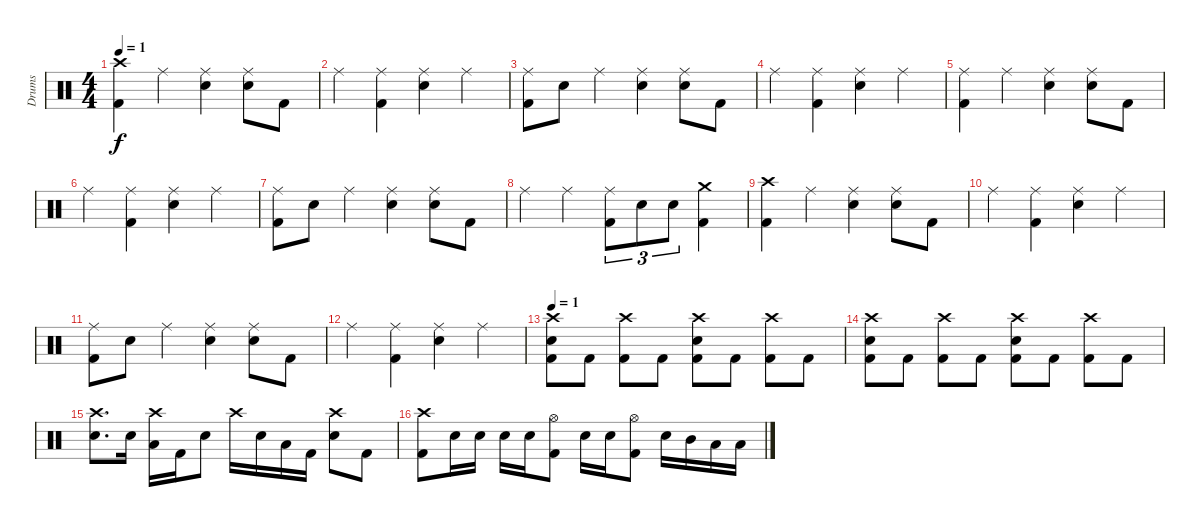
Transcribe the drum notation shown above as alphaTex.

\track ("Drums" "Drums") {instrument percussion}
\staff {score}
\articulation defaults
\ts (4 4)
\tempo 1
\clef neutral
\ks c
("Crash high (hit)" "Kick (hit) 2").4{dy f} "Ride (middle)".4 ("Ride (middle)" "Snare (hit) 2").4 ("Ride (middle)" "Snare (hit) 2").8 "Kick (hit) 2".8 |
"Ride (middle)".4 ("Ride (middle)" "Kick (hit) 2").4 ("Ride (middle)" "Snare (hit) 2").4 "Ride (middle)".4 |
("Ride (middle)" "Kick (hit) 2").8 "Snare (hit) 2".8 "Ride (middle)".4 ("Ride (middle)" "Snare (hit) 2").4 ("Ride (middle)" "Snare (hit) 2").8 "Kick (hit) 2".8 |
"Ride (middle)".4 ("Ride (middle)" "Kick (hit) 2").4 ("Ride (middle)" "Snare (hit) 2").4 "Ride (middle)".4 |
("Ride (middle)" "Kick (hit) 2").4 "Ride (middle)".4 ("Ride (middle)" "Snare (hit) 2").4 ("Ride (middle)" "Snare (hit) 2").8 "Kick (hit) 2".8 |
"Ride (middle)".4 ("Ride (middle)" "Kick (hit) 2").4 ("Ride (middle)" "Snare (hit) 2").4 "Ride (middle)".4 |
("Ride (middle)" "Kick (hit) 2").8 "Snare (hit) 2".8 "Ride (middle)".4 ("Ride (middle)" "Snare (hit) 2").4 ("Ride (middle)" "Snare (hit) 2").8 "Kick (hit) 2".8 |
"Ride (middle)".4 "Ride (middle)".4 ("Ride (middle)" "Kick (hit) 2").8{tu (3 2)} "Snare (hit) 2".8{tu (3 2)} "Snare (hit) 2".8{tu (3 2)} ("Crash medium (hit)" "Kick (hit) 2").4 |
("Crash high (hit)" "Kick (hit) 2").4 "Ride (middle)".4 ("Ride (middle)" "Snare (hit) 2").4 ("Ride (middle)" "Snare (hit) 2").8 "Kick (hit) 2".8 |
"Ride (middle)".4 ("Ride (middle)" "Kick (hit) 2").4 ("Ride (middle)" "Snare (hit) 2").4 "Ride (middle)".4 |
("Ride (middle)" "Kick (hit) 2").8 "Snare (hit) 2".8 "Ride (middle)".4 ("Ride (middle)" "Snare (hit) 2").4 ("Ride (middle)" "Snare (hit) 2").8 "Kick (hit) 2".8 |
"Ride (middle)".4 ("Ride (middle)" "Kick (hit) 2").4 ("Ride (middle)" "Snare (hit) 2").4 "Ride (middle)".4 |
\tempo 1
("Crash high (hit)" "Snare (hit) 2" "Kick (hit) 2").8 "Kick (hit) 2".8 ("Crash high (hit)" "Kick (hit) 2").8 "Kick (hit) 2".8 ("Crash high (hit)" "Snare (hit) 2" "Kick (hit) 2").8 "Kick (hit) 2".8 ("Crash high (hit)" "Kick (hit) 2").8 "Kick (hit) 2".8 |
("Crash high (hit)" "Snare (hit) 2" "Kick (hit) 2").8 "Kick (hit) 2".8 ("Crash high (hit)" "Kick (hit) 2").8 "Kick (hit) 2".8 ("Crash high (hit)" "Snare (hit) 2" "Kick (hit) 2").8 "Kick (hit) 2".8 ("Crash high (hit)" "Kick (hit) 2").8 "Kick (hit) 2".8 |
("Crash high (hit)" "Snare (hit) 2").8{d} "Snare (hit) 2".16 ("Crash high (hit)" "Low Tom (hit)").16 "Kick (hit) 2".16 "Snare (hit) 2".8 "Crash high (hit)".16 "Snare (hit) 2".16 "Low Tom (hit)".16 "Kick (hit) 2".16 ("Crash high (hit)" "Snare (hit) 2").8 "Kick (hit) 2".8 |
("Crash high (hit)" "Kick (hit) 2").8 "Snare (hit) 2".16 "Snare (hit) 2".16 "Snare (hit) 2".16 "Snare (hit) 2".16 ("Hi-Hat (open)" "Kick (hit) 2").8 "Snare (hit) 2".16 "Snare (hit) 2".16 ("Hi-Hat (open)" "Kick (hit) 2").8 "Snare (hit) 2".16 "Mid Tom (hit)".16 "Low Tom (hit)".16 "Low Tom (hit)".16
